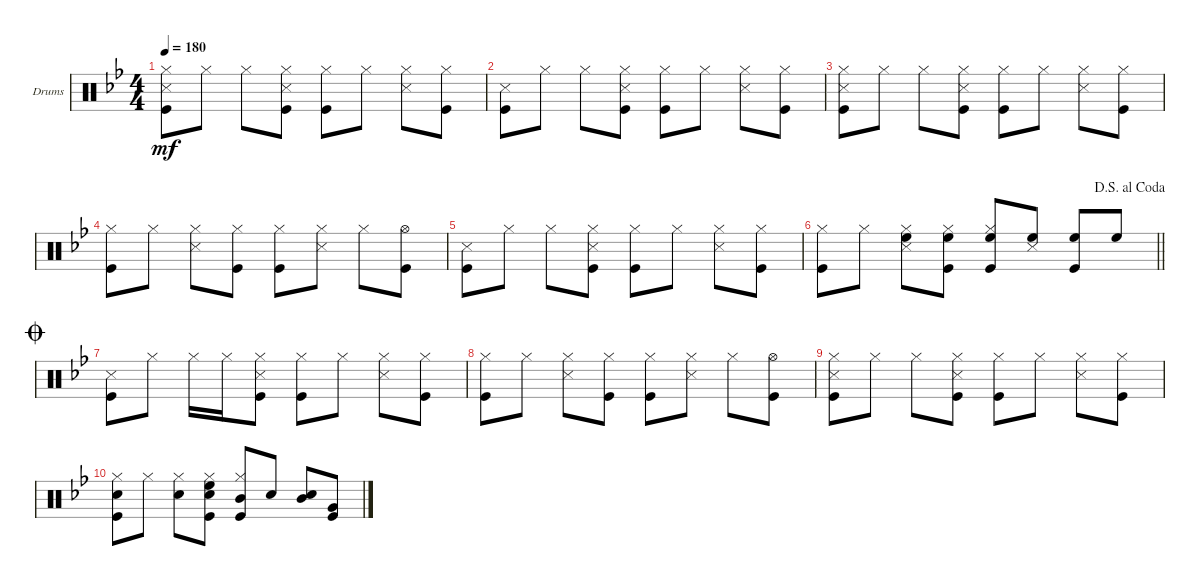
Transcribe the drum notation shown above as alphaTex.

\bracketExtendMode groupsimilarinstruments
\firstSystemTrackNameOrientation horizontal
\otherSystemsTrackNameOrientation horizontal
\track ("Drums   (BB)" "Drums") {instrument percussion}
\staff {score}
\articulation defaults
\ts (4 4)
\tempo 180
\clef neutral
\ks bb
("Kick (hit)" "Hi-Hat (closed)" "Snare (side stick) 3").8{dy mf} "Hi-Hat (closed)".8 "Hi-Hat (closed)".8 ("Kick (hit)" "Hi-Hat (closed)" "Snare (side stick) 3").8 ("Kick (hit)" "Hi-Hat (closed)").8 "Hi-Hat (closed)".8 ("Hi-Hat (closed)" "Snare (side stick) 3").8 ("Kick (hit)" "Hi-Hat (closed)").8 |
("Kick (hit)" "Snare (side stick) 3").8 "Hi-Hat (closed)".8 "Hi-Hat (closed)".8 ("Kick (hit)" "Hi-Hat (closed)" "Snare (side stick) 3").8 ("Kick (hit)" "Hi-Hat (closed)").8 "Hi-Hat (closed)".8 ("Hi-Hat (closed)" "Snare (side stick) 3").8 ("Kick (hit)" "Hi-Hat (closed)").8 |
("Kick (hit)" "Hi-Hat (closed)" "Snare (side stick) 3").8 "Hi-Hat (closed)".8 "Hi-Hat (closed)".8 ("Kick (hit)" "Hi-Hat (closed)" "Snare (side stick) 3").8 ("Kick (hit)" "Hi-Hat (closed)").8 "Hi-Hat (closed)".8 ("Hi-Hat (closed)" "Snare (side stick) 3").8 ("Kick (hit)" "Hi-Hat (closed)").8 |
("Kick (hit)" "Hi-Hat (closed)").8 "Hi-Hat (closed)".8 ("Hi-Hat (closed)" "Snare (side stick) 3").8 ("Kick (hit)" "Hi-Hat (closed)").8 ("Kick (hit)" "Hi-Hat (closed)").8 ("Hi-Hat (closed)" "Snare (side stick) 3").8 "Hi-Hat (closed)".8 ("Kick (hit)" "Hi-Hat (open)").8 |
("Kick (hit)" "Snare (side stick) 3").8 "Hi-Hat (closed)".8 "Hi-Hat (closed)".8 ("Kick (hit)" "Hi-Hat (closed)" "Snare (side stick) 3").8 ("Kick (hit)" "Hi-Hat (closed)").8 "Hi-Hat (closed)".8 ("Hi-Hat (closed)" "Snare (side stick) 3").8 ("Kick (hit)" "Hi-Hat (closed)").8 |
\jump dalsegnoalcoda
\barLineRight lightlight
("Kick (hit)" "Hi-Hat (closed)").8 "Hi-Hat (closed)".8 ("Hi-Hat (closed)" "Snare (side stick) 3" "High Floor Tom (hit)").8 ("Kick (hit)" "Hi-Hat (closed)" "High Floor Tom (hit)").8 ("Kick (hit)" "Hi-Hat (closed)" "High Floor Tom (hit)").8 ("Snare (side stick) 3" "High Floor Tom (hit)").8 ("Kick (hit)" "High Floor Tom (hit)").8 "High Floor Tom (hit)".8 |
\jump coda
("Kick (hit)" "Snare (side stick) 3").8 "Hi-Hat (closed)".8 "Hi-Hat (closed)".16 "Hi-Hat (closed)".16 ("Kick (hit)" "Hi-Hat (closed)" "Snare (side stick) 3").8 ("Kick (hit)" "Hi-Hat (closed)").8 "Hi-Hat (closed)".8 ("Hi-Hat (closed)" "Snare (side stick) 3").8 ("Kick (hit)" "Hi-Hat (closed)").8 |
("Kick (hit)" "Hi-Hat (closed)").8 "Hi-Hat (closed)".8 ("Hi-Hat (closed)" "Snare (side stick) 3").8 ("Kick (hit)" "Hi-Hat (closed)").8 ("Kick (hit)" "Hi-Hat (closed)").8 ("Hi-Hat (closed)" "Snare (side stick) 3").8 "Hi-Hat (closed)".8 ("Kick (hit)" "Hi-Hat (open)").8 |
("Kick (hit)" "Hi-Hat (closed)" "Snare (side stick) 3").8 "Hi-Hat (closed)".8 "Hi-Hat (closed)".8 ("Kick (hit)" "Hi-Hat (closed)" "Snare (side stick) 3").8 ("Kick (hit)" "Hi-Hat (closed)").8 "Hi-Hat (closed)".8 ("Hi-Hat (closed)" "Snare (side stick) 3").8 ("Kick (hit)" "Hi-Hat (closed)").8 |
("Kick (hit)" "Snare (hit) 2" "Hi-Hat (closed)").8 "Hi-Hat (closed)".8 ("Snare (hit) 2" "Hi-Hat (closed)").8 ("Kick (hit)" "Snare (hit) 2" "Hi-Hat (closed)" "High Floor Tom (hit)").8 ("Kick (hit)" "Hi-Hat (closed)" "Mid Tom (hit)").8 "Snare (hit) 2".8 ("Snare (hit) 2" "Mid Tom (hit)").8 ("Kick (hit)" "Very Low Tom (hit)").8
